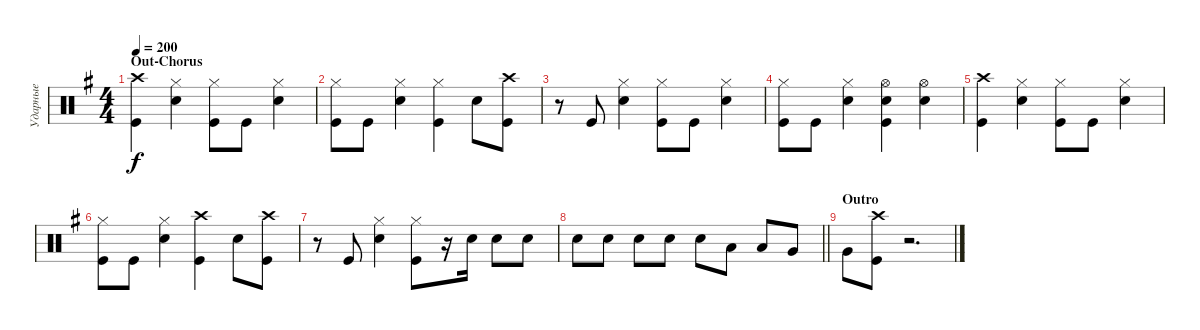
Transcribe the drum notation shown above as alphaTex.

\track ("Ударные" "Ударные") {instrument percussion}
\staff {score}
\articulation defaults
\ts (4 4)
\section ("" "Out-Chorus")
\tempo 200
\clef neutral
\ks eminor
("Kick (hit)" "Crash high (hit)").4{dy f} ("Snare (hit) 2" "Hi-Hat (closed)").4 ("Kick (hit)" "Hi-Hat (closed)").8 "Kick (hit)".8 ("Snare (hit) 2" "Hi-Hat (closed)").4 |
("Kick (hit)" "Hi-Hat (closed)").8 "Kick (hit)".8 ("Snare (hit) 2" "Hi-Hat (closed)").4 ("Kick (hit)" "Hi-Hat (closed)").4 "Snare (hit) 2".8 ("Crash high (hit)" "Kick (hit)").8 |
r.8 "Kick (hit)".8 ("Snare (hit) 2" "Hi-Hat (closed)").4 ("Kick (hit)" "Hi-Hat (closed)").8 "Kick (hit)".8 ("Snare (hit) 2" "Hi-Hat (closed)").4 |
("Kick (hit)" "Hi-Hat (closed)").8 "Kick (hit)".8 ("Snare (hit) 2" "Hi-Hat (closed)").4 ("Kick (hit)" "Hi-Hat (open)" "Snare (hit) 2").4 ("Snare (hit) 2" "Hi-Hat (open)").4 |
("Kick (hit)" "Crash high (hit)").4 ("Snare (hit) 2" "Hi-Hat (closed)").4 ("Kick (hit)" "Hi-Hat (closed)").8 "Kick (hit)".8 ("Snare (hit) 2" "Hi-Hat (closed)").4 |
("Kick (hit)" "Hi-Hat (closed)").8 "Kick (hit)".8 ("Snare (hit) 2" "Hi-Hat (closed)").4 ("Kick (hit)" "Crash high (hit)").4 "Snare (hit) 2".8 ("Crash high (hit)" "Kick (hit)").8 |
r.8 "Kick (hit)".8 ("Snare (hit) 2" "Hi-Hat (closed)").4 ("Kick (hit)" "Hi-Hat (closed)").8 r.16 "Snare (hit) 2".16 "Snare (hit) 2".8 "Snare (hit) 2".8 |
\barLineRight lightlight "Snare (hit) 2".8 "Snare (hit) 2".8 "Snare (hit) 2".8 "Snare (hit) 2".8 "Snare (hit) 2".8 "Low Tom (hit)".8 "Low Tom (hit)".8 "Very Low Tom (hit)".8
|
\section ("" "Outro")
"Very Low Tom (hit)".8 ("Kick (hit)" "Crash high (hit)").8 r.2{d}
